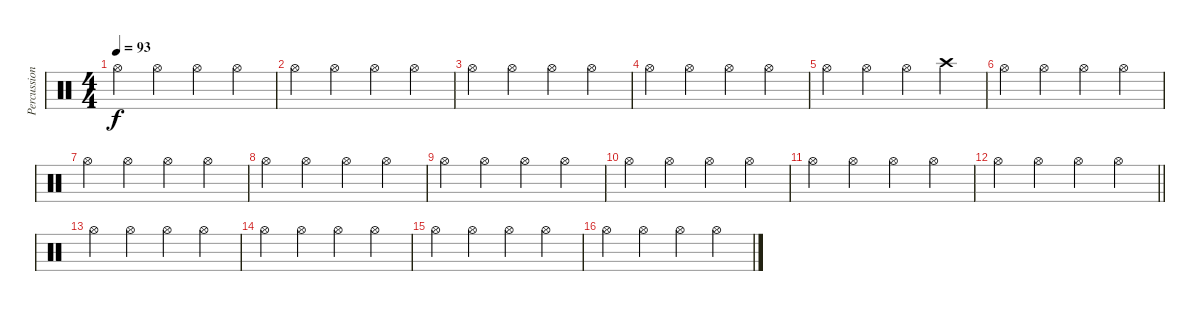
\track ("Percussion" "Percussion") {instrument percussion}
\staff {score}
\articulation defaults
\ts (4 4)
\tempo 93
\clef neutral
\ks c "Hi-Hat (open)".4{dy f} "Hi-Hat (open)".4 "Hi-Hat (open)".4 "Hi-Hat (open)".4
|
"Hi-Hat (open)".4 "Hi-Hat (open)".4 "Hi-Hat (open)".4 "Hi-Hat (open)".4 |
"Hi-Hat (open)".4 "Hi-Hat (open)".4 "Hi-Hat (open)".4 "Hi-Hat (open)".4 |
"Hi-Hat (open)".4 "Hi-Hat (open)".4 "Hi-Hat (open)".4 "Hi-Hat (open)".4 |
"Hi-Hat (open)".4 "Hi-Hat (open)".4 "Hi-Hat (open)".4 "Crash high (hit)".4 |
"Hi-Hat (open)".4 "Hi-Hat (open)".4 "Hi-Hat (open)".4 "Hi-Hat (open)".4 |
"Hi-Hat (open)".4 "Hi-Hat (open)".4 "Hi-Hat (open)".4 "Hi-Hat (open)".4 |
"Hi-Hat (open)".4 "Hi-Hat (open)".4 "Hi-Hat (open)".4 "Hi-Hat (open)".4 |
"Hi-Hat (open)".4 "Hi-Hat (open)".4 "Hi-Hat (open)".4 "Hi-Hat (open)".4 |
"Hi-Hat (open)".4 "Hi-Hat (open)".4 "Hi-Hat (open)".4 "Hi-Hat (open)".4 |
"Hi-Hat (open)".4 "Hi-Hat (open)".4 "Hi-Hat (open)".4 "Hi-Hat (open)".4 |
\barLineRight lightlight "Hi-Hat (open)".4 "Hi-Hat (open)".4 "Hi-Hat (open)".4 "Hi-Hat (open)".4
|
"Hi-Hat (open)".4 "Hi-Hat (open)".4 "Hi-Hat (open)".4 "Hi-Hat (open)".4 |
"Hi-Hat (open)".4 "Hi-Hat (open)".4 "Hi-Hat (open)".4 "Hi-Hat (open)".4 |
"Hi-Hat (open)".4 "Hi-Hat (open)".4 "Hi-Hat (open)".4 "Hi-Hat (open)".4 |
"Hi-Hat (open)".4 "Hi-Hat (open)".4 "Hi-Hat (open)".4 "Hi-Hat (open)".4
